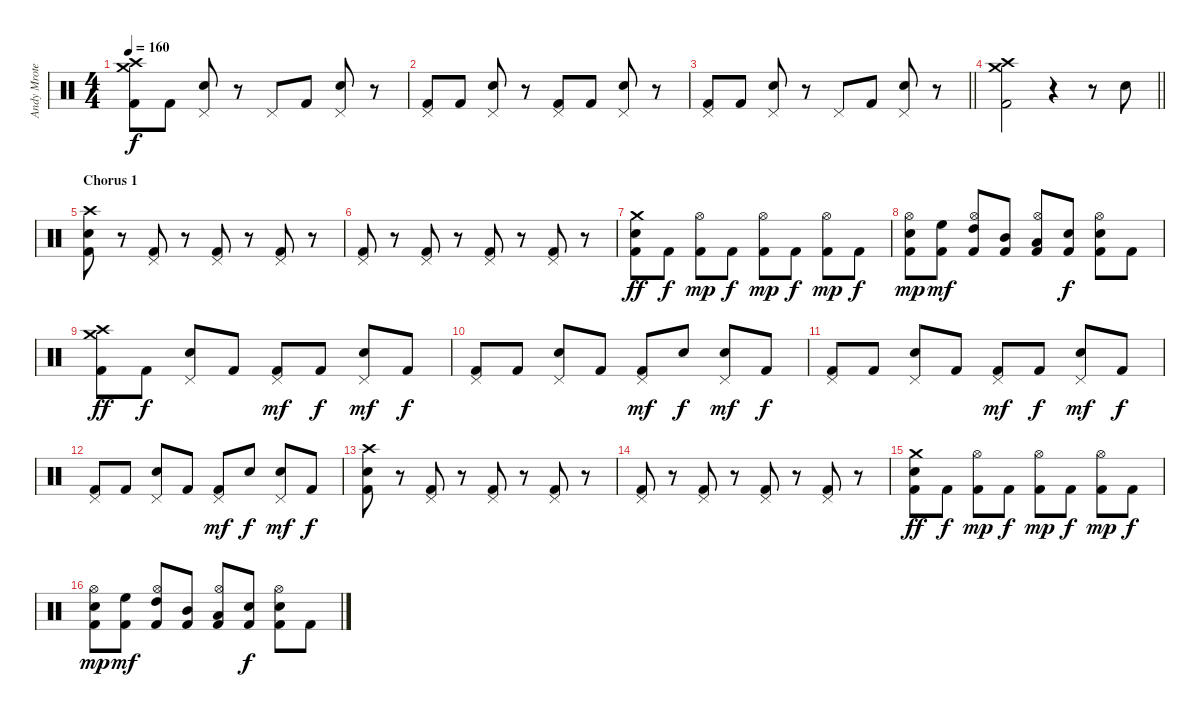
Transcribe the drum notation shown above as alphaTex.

\track ("Andy Mrotek (Drums)" "Andy Mrote") {instrument percussion}
\staff {score}
\articulation defaults
\ts (4 4)
\tempo 160
\clef neutral
\ks c
("Crash high (hit)" "Crash medium (hit)" "Kick (hit) 2").8{dy f} "Kick (hit) 2".8 ("Pedal Hi-Hat (hit)" "Electric Snare (hit)").8 r.8 "Pedal Hi-Hat (hit)".8 "Kick (hit) 2".8 ("Pedal Hi-Hat (hit)" "Electric Snare (hit)").8 r.8 |
("Pedal Hi-Hat (hit)" "Kick (hit) 2").8 "Kick (hit) 2".8 ("Pedal Hi-Hat (hit)" "Electric Snare (hit)").8 r.8 ("Pedal Hi-Hat (hit)" "Kick (hit) 2").8 "Kick (hit) 2".8 ("Pedal Hi-Hat (hit)" "Electric Snare (hit)").8 r.8 |
\barLineRight lightlight
("Pedal Hi-Hat (hit)" "Kick (hit) 2").8 "Kick (hit) 2".8 ("Pedal Hi-Hat (hit)" "Electric Snare (hit)").8 r.8 "Pedal Hi-Hat (hit)".8 "Kick (hit) 2".8 ("Pedal Hi-Hat (hit)" "Electric Snare (hit)").8 r.8 |
\barLineRight lightlight
("Crash high (hit)" "Crash medium (hit)" "Kick (hit) 2").2 r.4 r.8 "Electric Snare (hit)".8 |
\section ("" "Chorus 1")
("Crash high (hit)" "Electric Snare (hit)" "Kick (hit) 2").8 r.8 ("Pedal Hi-Hat (hit)" "Kick (hit) 2").8 r.8 ("Pedal Hi-Hat (hit)" "Kick (hit) 2").8 r.8 ("Pedal Hi-Hat (hit)" "Kick (hit) 2").8 r.8 |
("Pedal Hi-Hat (hit)" "Kick (hit) 2").8 r.8 ("Pedal Hi-Hat (hit)" "Kick (hit) 2").8 r.8 ("Pedal Hi-Hat (hit)" "Kick (hit) 2").8 r.8 ("Pedal Hi-Hat (hit)" "Kick (hit) 2").8 r.8 |
("Crash medium (hit)" "Electric Snare (hit)" "Kick (hit) 2").8{dy ff} "Kick (hit) 2".8{dy f} ("Hi-Hat (open)" "Kick (hit) 2").8{dy mp} "Kick (hit) 2".8{dy f} ("Hi-Hat (open)" "Kick (hit) 2").8{dy mp} "Kick (hit) 2".8{dy f} ("Hi-Hat (open)" "Kick (hit) 2").8{dy mp} "Kick (hit) 2".8{dy f} |
("Hi-Hat (open)" "Electric Snare (hit)" "Kick (hit) 2").8{dy mp} ("High Floor Tom (hit)" "Kick (hit) 2").8{dy mf} ("Hi-Hat (open)" "High Tom (hit)" "Kick (hit) 2").8 ("Mid Tom (hit)" "Kick (hit) 2").8 ("Hi-Hat (open)" "Low Tom (hit)" "Kick (hit) 2").8 ("Electric Snare (hit)" "Kick (hit) 2").8{dy f} ("Hi-Hat (open)" "Electric Snare (hit)" "Kick (hit) 2").8 "Kick (hit) 2".8 |
("Crash high (hit)" "Crash medium (hit)" "Kick (hit) 2").8{dy ff} "Kick (hit) 2".8{dy f} ("Pedal Hi-Hat (hit)" "Electric Snare (hit)").8 "Kick (hit) 2".8 ("Pedal Hi-Hat (hit)" "Kick (hit) 2").8{dy mf} "Kick (hit) 2".8{dy f} ("Pedal Hi-Hat (hit)" "Electric Snare (hit)").8{dy mf} "Kick (hit) 2".8{dy f} |
("Pedal Hi-Hat (hit)" "Kick (hit) 2").8 "Kick (hit) 2".8 ("Pedal Hi-Hat (hit)" "Electric Snare (hit)").8 "Kick (hit) 2".8 ("Pedal Hi-Hat (hit)" "Kick (hit) 2").8{dy mf} "Electric Snare (hit)".8{dy f} ("Pedal Hi-Hat (hit)" "Electric Snare (hit)").8{dy mf} "Kick (hit) 2".8{dy f} |
("Pedal Hi-Hat (hit)" "Kick (hit) 2").8 "Kick (hit) 2".8 ("Pedal Hi-Hat (hit)" "Electric Snare (hit)").8 "Kick (hit) 2".8 ("Pedal Hi-Hat (hit)" "Kick (hit) 2").8{dy mf} "Kick (hit) 2".8{dy f} ("Pedal Hi-Hat (hit)" "Electric Snare (hit)").8{dy mf} "Kick (hit) 2".8{dy f} |
("Pedal Hi-Hat (hit)" "Kick (hit) 2").8 "Kick (hit) 2".8 ("Pedal Hi-Hat (hit)" "Electric Snare (hit)").8 "Kick (hit) 2".8 ("Pedal Hi-Hat (hit)" "Kick (hit) 2").8{dy mf} "Electric Snare (hit)".8{dy f} ("Pedal Hi-Hat (hit)" "Electric Snare (hit)").8{dy mf} "Kick (hit) 2".8{dy f} |
("Crash high (hit)" "Electric Snare (hit)" "Kick (hit) 2").8 r.8 ("Pedal Hi-Hat (hit)" "Kick (hit) 2").8 r.8 ("Pedal Hi-Hat (hit)" "Kick (hit) 2").8 r.8 ("Pedal Hi-Hat (hit)" "Kick (hit) 2").8 r.8 |
("Pedal Hi-Hat (hit)" "Kick (hit) 2").8 r.8 ("Pedal Hi-Hat (hit)" "Kick (hit) 2").8 r.8 ("Pedal Hi-Hat (hit)" "Kick (hit) 2").8 r.8 ("Pedal Hi-Hat (hit)" "Kick (hit) 2").8 r.8 |
("Crash medium (hit)" "Electric Snare (hit)" "Kick (hit) 2").8{dy ff} "Kick (hit) 2".8{dy f} ("Hi-Hat (open)" "Kick (hit) 2").8{dy mp} "Kick (hit) 2".8{dy f} ("Hi-Hat (open)" "Kick (hit) 2").8{dy mp} "Kick (hit) 2".8{dy f} ("Hi-Hat (open)" "Kick (hit) 2").8{dy mp} "Kick (hit) 2".8{dy f} |
("Hi-Hat (open)" "Electric Snare (hit)" "Kick (hit) 2").8{dy mp} ("High Floor Tom (hit)" "Kick (hit) 2").8{dy mf} ("Hi-Hat (open)" "High Tom (hit)" "Kick (hit) 2").8 ("Mid Tom (hit)" "Kick (hit) 2").8 ("Hi-Hat (open)" "Low Tom (hit)" "Kick (hit) 2").8 ("Electric Snare (hit)" "Kick (hit) 2").8{dy f} ("Hi-Hat (open)" "Electric Snare (hit)" "Kick (hit) 2").8 "Kick (hit) 2".8
